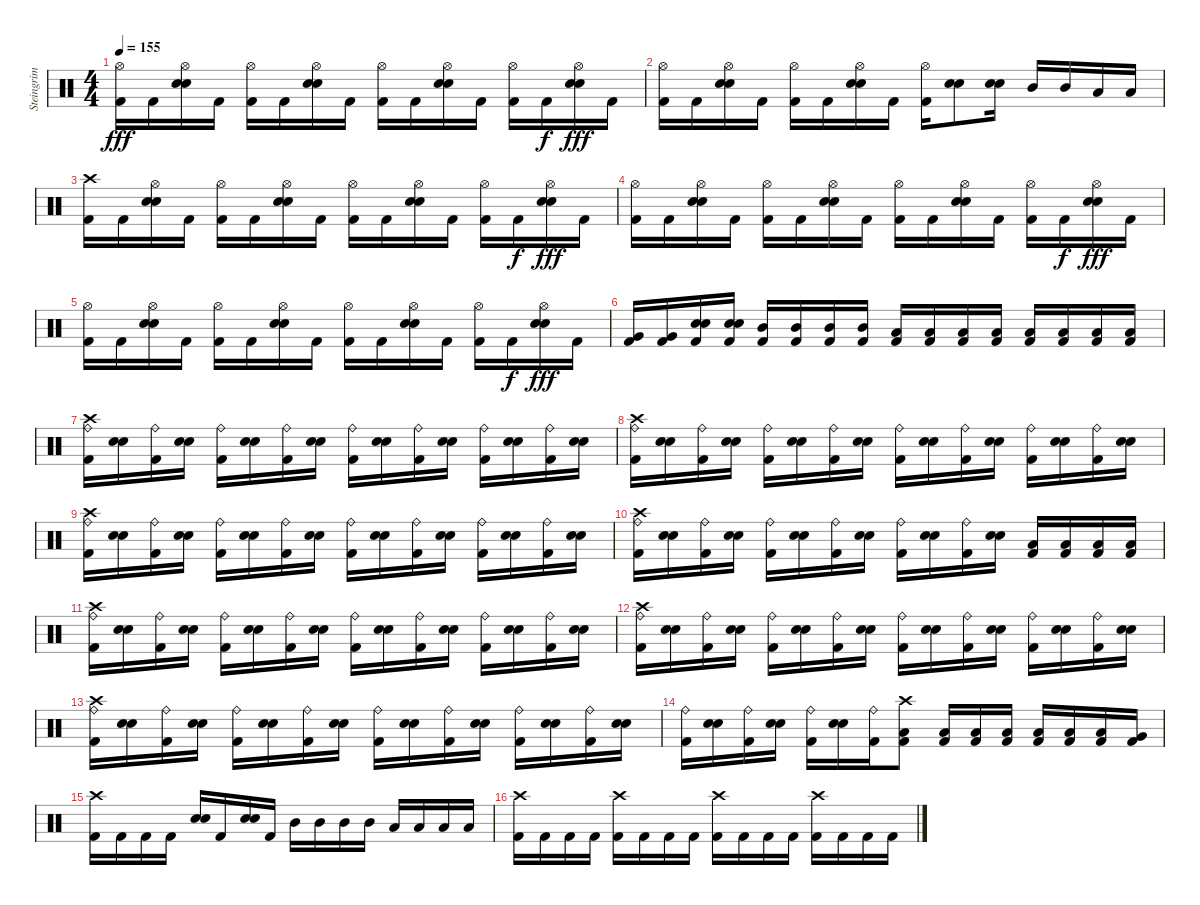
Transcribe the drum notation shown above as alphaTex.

\track ("Steingrim" "Steingrim") {instrument percussion}
\staff {score}
\articulation defaults
\ts (4 4)
\tempo 155
\clef neutral
\ks c
("Kick (hit) 2" "Hi-Hat (open)").16{dy fff} "Kick (hit) 2".16 ("Snare (hit) 2" "Electric Snare (hit)" "Hi-Hat (open)").16 "Kick (hit) 2".16 ("Kick (hit) 2" "Hi-Hat (open)").16 "Kick (hit) 2".16 ("Snare (hit) 2" "Electric Snare (hit)" "Hi-Hat (open)").16 "Kick (hit) 2".16 ("Kick (hit) 2" "Hi-Hat (open)").16 "Kick (hit) 2".16 ("Snare (hit) 2" "Electric Snare (hit)" "Hi-Hat (open)").16 "Kick (hit) 2".16 ("Kick (hit) 2" "Hi-Hat (open)").16 "Kick (hit) 2".16{dy f} ("Snare (hit) 2" "Electric Snare (hit)" "Hi-Hat (open)").16{dy fff} "Kick (hit) 2".16 |
("Kick (hit) 2" "Hi-Hat (open)").16 "Kick (hit) 2".16 ("Snare (hit) 2" "Electric Snare (hit)" "Hi-Hat (open)").16 "Kick (hit) 2".16 ("Kick (hit) 2" "Hi-Hat (open)").16 "Kick (hit) 2".16 ("Snare (hit) 2" "Electric Snare (hit)" "Hi-Hat (open)").16 "Kick (hit) 2".16 ("Kick (hit) 2" "Hi-Hat (open)").16 ("Snare (hit) 2" "Electric Snare (hit)").8 ("Snare (hit) 2" "Electric Snare (hit)").16 "Mid Tom (hit)".16 "Mid Tom (hit)".16 "Low Tom (hit)".16 "Low Tom (hit)".16 |
("Kick (hit) 2" "Crash high (hit)").16 "Kick (hit) 2".16 ("Snare (hit) 2" "Electric Snare (hit)" "Hi-Hat (open)").16 "Kick (hit) 2".16 ("Kick (hit) 2" "Hi-Hat (open)").16 "Kick (hit) 2".16 ("Snare (hit) 2" "Electric Snare (hit)" "Hi-Hat (open)").16 "Kick (hit) 2".16 ("Kick (hit) 2" "Hi-Hat (open)").16 "Kick (hit) 2".16 ("Snare (hit) 2" "Electric Snare (hit)" "Hi-Hat (open)").16 "Kick (hit) 2".16 ("Kick (hit) 2" "Hi-Hat (open)").16 "Kick (hit) 2".16{dy f} ("Snare (hit) 2" "Electric Snare (hit)" "Hi-Hat (open)").16{dy fff} "Kick (hit) 2".16 |
("Kick (hit) 2" "Hi-Hat (open)").16 "Kick (hit) 2".16 ("Snare (hit) 2" "Electric Snare (hit)" "Hi-Hat (open)").16 "Kick (hit) 2".16 ("Kick (hit) 2" "Hi-Hat (open)").16 "Kick (hit) 2".16 ("Snare (hit) 2" "Electric Snare (hit)" "Hi-Hat (open)").16 "Kick (hit) 2".16 ("Kick (hit) 2" "Hi-Hat (open)").16 "Kick (hit) 2".16 ("Snare (hit) 2" "Electric Snare (hit)" "Hi-Hat (open)").16 "Kick (hit) 2".16 ("Kick (hit) 2" "Hi-Hat (open)").16 "Kick (hit) 2".16{dy f} ("Snare (hit) 2" "Electric Snare (hit)" "Hi-Hat (open)").16{dy fff} "Kick (hit) 2".16 |
("Kick (hit) 2" "Hi-Hat (open)").16 "Kick (hit) 2".16 ("Snare (hit) 2" "Electric Snare (hit)" "Hi-Hat (open)").16 "Kick (hit) 2".16 ("Kick (hit) 2" "Hi-Hat (open)").16 "Kick (hit) 2".16 ("Snare (hit) 2" "Electric Snare (hit)" "Hi-Hat (open)").16 "Kick (hit) 2".16 ("Kick (hit) 2" "Hi-Hat (open)").16 "Kick (hit) 2".16 ("Snare (hit) 2" "Electric Snare (hit)" "Hi-Hat (open)").16 "Kick (hit) 2".16 ("Kick (hit) 2" "Hi-Hat (open)").16 "Kick (hit) 2".16{dy f} ("Snare (hit) 2" "Electric Snare (hit)" "Hi-Hat (open)").16{dy fff} "Kick (hit) 2".16 |
("Very Low Tom (hit)" "Kick (hit) 2").16 ("Very Low Tom (hit)" "Kick (hit) 2").16 ("Snare (hit) 2" "Electric Snare (hit)" "Kick (hit) 2").16 ("Snare (hit) 2" "Electric Snare (hit)" "Kick (hit) 2").16 ("Mid Tom (hit)" "Kick (hit) 2").16 ("Mid Tom (hit)" "Kick (hit) 2").16 ("Mid Tom (hit)" "Kick (hit) 2").16 ("Mid Tom (hit)" "Kick (hit) 2").16 ("Low Tom (hit)" "Kick (hit) 2").16 ("Low Tom (hit)" "Kick (hit) 2").16 ("Low Tom (hit)" "Kick (hit) 2").16 ("Low Tom (hit)" "Kick (hit) 2").16 ("Low Floor Tom (hit)" "Kick (hit) 2").16 ("Low Floor Tom (hit)" "Kick (hit) 2").16 ("Low Floor Tom (hit)" "Kick (hit) 2").16 ("Low Floor Tom (hit)" "Kick (hit) 2").16 |
("Kick (hit) 2" "Ride (bell)" "Crash high (hit)").16 ("Snare (hit) 2" "Electric Snare (hit)").16 ("Kick (hit) 2" "Ride (bell)").16 ("Snare (hit) 2" "Electric Snare (hit)").16 ("Kick (hit) 2" "Ride (bell)").16 ("Snare (hit) 2" "Electric Snare (hit)").16 ("Kick (hit) 2" "Ride (bell)").16 ("Snare (hit) 2" "Electric Snare (hit)").16 ("Kick (hit) 2" "Ride (bell)").16 ("Snare (hit) 2" "Electric Snare (hit)").16 ("Kick (hit) 2" "Ride (bell)").16 ("Snare (hit) 2" "Electric Snare (hit)").16 ("Kick (hit) 2" "Ride (bell)").16 ("Snare (hit) 2" "Electric Snare (hit)").16 ("Kick (hit) 2" "Ride (bell)").16 ("Snare (hit) 2" "Electric Snare (hit)").16 |
("Kick (hit) 2" "Ride (bell)" "Crash high (hit)").16 ("Snare (hit) 2" "Electric Snare (hit)").16 ("Kick (hit) 2" "Ride (bell)").16 ("Snare (hit) 2" "Electric Snare (hit)").16 ("Kick (hit) 2" "Ride (bell)").16 ("Snare (hit) 2" "Electric Snare (hit)").16 ("Kick (hit) 2" "Ride (bell)").16 ("Snare (hit) 2" "Electric Snare (hit)").16 ("Kick (hit) 2" "Ride (bell)").16 ("Snare (hit) 2" "Electric Snare (hit)").16 ("Kick (hit) 2" "Ride (bell)").16 ("Snare (hit) 2" "Electric Snare (hit)").16 ("Kick (hit) 2" "Ride (bell)").16 ("Snare (hit) 2" "Electric Snare (hit)").16 ("Kick (hit) 2" "Ride (bell)").16 ("Snare (hit) 2" "Electric Snare (hit)").16 |
("Kick (hit) 2" "Ride (bell)" "Crash high (hit)").16 ("Snare (hit) 2" "Electric Snare (hit)").16 ("Kick (hit) 2" "Ride (bell)").16 ("Snare (hit) 2" "Electric Snare (hit)").16 ("Kick (hit) 2" "Ride (bell)").16 ("Snare (hit) 2" "Electric Snare (hit)").16 ("Kick (hit) 2" "Ride (bell)").16 ("Snare (hit) 2" "Electric Snare (hit)").16 ("Kick (hit) 2" "Ride (bell)").16 ("Snare (hit) 2" "Electric Snare (hit)").16 ("Kick (hit) 2" "Ride (bell)").16 ("Snare (hit) 2" "Electric Snare (hit)").16 ("Kick (hit) 2" "Ride (bell)").16 ("Snare (hit) 2" "Electric Snare (hit)").16 ("Kick (hit) 2" "Ride (bell)").16 ("Snare (hit) 2" "Electric Snare (hit)").16 |
("Kick (hit) 2" "Ride (bell)" "Crash high (hit)").16 ("Snare (hit) 2" "Electric Snare (hit)").16 ("Kick (hit) 2" "Ride (bell)").16 ("Snare (hit) 2" "Electric Snare (hit)").16 ("Kick (hit) 2" "Ride (bell)").16 ("Snare (hit) 2" "Electric Snare (hit)").16 ("Kick (hit) 2" "Ride (bell)").16 ("Snare (hit) 2" "Electric Snare (hit)").16 ("Kick (hit) 2" "Ride (bell)").16 ("Snare (hit) 2" "Electric Snare (hit)").16 ("Kick (hit) 2" "Ride (bell)").16 ("Snare (hit) 2" "Electric Snare (hit)").16 ("Kick (hit) 2" "Low Tom (hit)").16 ("Kick (hit) 2" "Low Tom (hit)").16 ("Kick (hit) 2" "Low Tom (hit)").16 ("Kick (hit) 2" "Low Tom (hit)").16 |
("Kick (hit) 2" "Ride (bell)" "Crash high (hit)").16 ("Snare (hit) 2" "Electric Snare (hit)").16 ("Kick (hit) 2" "Ride (bell)").16 ("Snare (hit) 2" "Electric Snare (hit)").16 ("Kick (hit) 2" "Ride (bell)").16 ("Snare (hit) 2" "Electric Snare (hit)").16 ("Kick (hit) 2" "Ride (bell)").16 ("Snare (hit) 2" "Electric Snare (hit)").16 ("Kick (hit) 2" "Ride (bell)").16 ("Snare (hit) 2" "Electric Snare (hit)").16 ("Kick (hit) 2" "Ride (bell)").16 ("Snare (hit) 2" "Electric Snare (hit)").16 ("Kick (hit) 2" "Ride (bell)").16 ("Snare (hit) 2" "Electric Snare (hit)").16 ("Kick (hit) 2" "Ride (bell)").16 ("Snare (hit) 2" "Electric Snare (hit)").16 |
("Kick (hit) 2" "Ride (bell)" "Crash high (hit)").16 ("Snare (hit) 2" "Electric Snare (hit)").16 ("Kick (hit) 2" "Ride (bell)").16 ("Snare (hit) 2" "Electric Snare (hit)").16 ("Kick (hit) 2" "Ride (bell)").16 ("Snare (hit) 2" "Electric Snare (hit)").16 ("Kick (hit) 2" "Ride (bell)").16 ("Snare (hit) 2" "Electric Snare (hit)").16 ("Kick (hit) 2" "Ride (bell)").16 ("Snare (hit) 2" "Electric Snare (hit)").16 ("Kick (hit) 2" "Ride (bell)").16 ("Snare (hit) 2" "Electric Snare (hit)").16 ("Kick (hit) 2" "Ride (bell)").16 ("Snare (hit) 2" "Electric Snare (hit)").16 ("Kick (hit) 2" "Ride (bell)").16 ("Snare (hit) 2" "Electric Snare (hit)").16 |
("Kick (hit) 2" "Ride (bell)" "Crash high (hit)").16 ("Snare (hit) 2" "Electric Snare (hit)").16 ("Kick (hit) 2" "Ride (bell)").16 ("Snare (hit) 2" "Electric Snare (hit)").16 ("Kick (hit) 2" "Ride (bell)").16 ("Snare (hit) 2" "Electric Snare (hit)").16 ("Kick (hit) 2" "Ride (bell)").16 ("Snare (hit) 2" "Electric Snare (hit)").16 ("Kick (hit) 2" "Ride (bell)").16 ("Snare (hit) 2" "Electric Snare (hit)").16 ("Kick (hit) 2" "Ride (bell)").16 ("Snare (hit) 2" "Electric Snare (hit)").16 ("Kick (hit) 2" "Ride (bell)").16 ("Snare (hit) 2" "Electric Snare (hit)").16 ("Kick (hit) 2" "Ride (bell)").16 ("Snare (hit) 2" "Electric Snare (hit)").16 |
("Kick (hit) 2" "Ride (bell)").16 ("Snare (hit) 2" "Electric Snare (hit)").16 ("Kick (hit) 2" "Ride (bell)").16 ("Snare (hit) 2" "Electric Snare (hit)").16 ("Kick (hit) 2" "Ride (bell)").16 ("Snare (hit) 2" "Electric Snare (hit)").16 ("Kick (hit) 2" "Ride (bell)").16 ("Low Tom (hit)" "Kick (hit) 2" "Crash high (hit)").8 ("Low Tom (hit)" "Kick (hit) 2").16 ("Low Tom (hit)" "Kick (hit) 2").16 ("Low Tom (hit)" "Kick (hit) 2").16 ("Low Tom (hit)" "Kick (hit) 2").16 ("Low Tom (hit)" "Kick (hit) 2").16 ("Low Tom (hit)" "Kick (hit) 2").16 ("Very Low Tom (hit)" "Kick (hit) 2").16 |
("Kick (hit) 2" "Crash high (hit)").16 "Kick (hit) 2".16 "Kick (hit) 2".16 "Kick (hit) 2".16 ("Snare (hit) 2" "Electric Snare (hit)").16 "Kick (hit) 2".16 ("Snare (hit) 2" "Electric Snare (hit)").16 "Kick (hit) 2".16 "Mid Tom (hit)".16 "Mid Tom (hit)".16 "Mid Tom (hit)".16 "Mid Tom (hit)".16 "Low Tom (hit)".16 "Low Tom (hit)".16 "Low Tom (hit)".16 "Low Tom (hit)".16 |
("Kick (hit) 2" "Crash high (hit)").16 "Kick (hit) 2".16 "Kick (hit) 2".16 "Kick (hit) 2".16 ("Kick (hit) 2" "Crash high (hit)").16 "Kick (hit) 2".16 "Kick (hit) 2".16 "Kick (hit) 2".16 ("Kick (hit) 2" "Crash high (hit)").16 "Kick (hit) 2".16 "Kick (hit) 2".16 "Kick (hit) 2".16 ("Kick (hit) 2" "Crash high (hit)").16 "Kick (hit) 2".16 "Kick (hit) 2".16 "Kick (hit) 2".16
